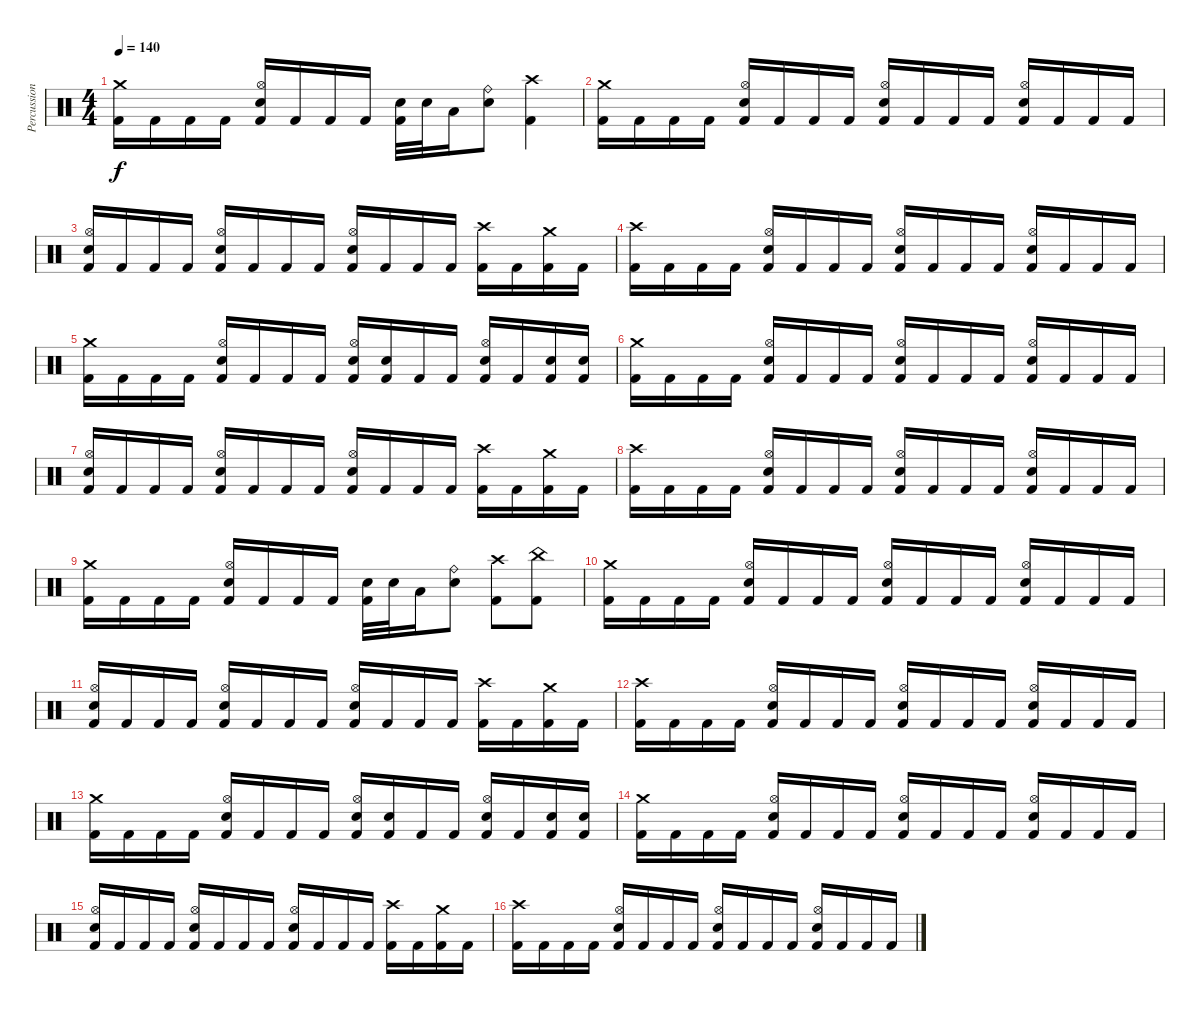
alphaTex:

\track ("Percussion" "Percussion") {instrument percussion}
\staff {score}
\articulation defaults
\ts (4 4)
\tempo 140
\clef neutral
\ks c
("Crash medium (hit)" "Kick (hit) 2").16{dy f} "Kick (hit) 2".16 "Kick (hit) 2".16 "Kick (hit) 2".16 ("Hi-Hat (open)" "Electric Snare (hit)" "Kick (hit) 2").16 "Kick (hit) 2".16 "Kick (hit) 2".16 "Kick (hit) 2".16 ("Electric Snare (hit)" "Kick (hit) 2").32 "Electric Snare (hit)".32 "Low Tom (hit)".16 ("Ride (bell)" "Electric Snare (hit)").8 ("Crash high (hit)" "Kick (hit) 2").4 |
("Crash medium (hit)" "Kick (hit) 2").16 "Kick (hit) 2".16 "Kick (hit) 2".16 "Kick (hit) 2".16 ("Hi-Hat (open)" "Electric Snare (hit)" "Kick (hit) 2").16 "Kick (hit) 2".16 "Kick (hit) 2".16 "Kick (hit) 2".16 ("Hi-Hat (open)" "Electric Snare (hit)" "Kick (hit) 2").16 "Kick (hit) 2".16 "Kick (hit) 2".16 "Kick (hit) 2".16 ("Hi-Hat (open)" "Electric Snare (hit)" "Kick (hit) 2").16 "Kick (hit) 2".16 "Kick (hit) 2".16 "Kick (hit) 2".16 |
("Hi-Hat (open)" "Electric Snare (hit)" "Kick (hit) 2").16 "Kick (hit) 2".16 "Kick (hit) 2".16 "Kick (hit) 2".16 ("Hi-Hat (open)" "Electric Snare (hit)" "Kick (hit) 2").16 "Kick (hit) 2".16 "Kick (hit) 2".16 "Kick (hit) 2".16 ("Hi-Hat (open)" "Electric Snare (hit)" "Kick (hit) 2").16 "Kick (hit) 2".16 "Kick (hit) 2".16 "Kick (hit) 2".16 ("Crash high (hit)" "Kick (hit) 2").16 "Kick (hit) 2".16 ("Crash medium (hit)" "Kick (hit) 2").16 "Kick (hit) 2".16 |
("Crash high (hit)" "Kick (hit) 2").16 "Kick (hit) 2".16 "Kick (hit) 2".16 "Kick (hit) 2".16 ("Hi-Hat (open)" "Electric Snare (hit)" "Kick (hit) 2").16 "Kick (hit) 2".16 "Kick (hit) 2".16 "Kick (hit) 2".16 ("Hi-Hat (open)" "Electric Snare (hit)" "Kick (hit) 2").16 "Kick (hit) 2".16 "Kick (hit) 2".16 "Kick (hit) 2".16 ("Hi-Hat (open)" "Electric Snare (hit)" "Kick (hit) 2").16 "Kick (hit) 2".16 "Kick (hit) 2".16 "Kick (hit) 2".16 |
("Crash medium (hit)" "Kick (hit) 2").16 "Kick (hit) 2".16 "Kick (hit) 2".16 "Kick (hit) 2".16 ("Hi-Hat (open)" "Electric Snare (hit)" "Kick (hit) 2").16 "Kick (hit) 2".16 "Kick (hit) 2".16 "Kick (hit) 2".16 ("Hi-Hat (open)" "Electric Snare (hit)" "Kick (hit) 2").16 ("Electric Snare (hit)" "Kick (hit) 2").16 "Kick (hit) 2".16 "Kick (hit) 2".16 ("Hi-Hat (open)" "Electric Snare (hit)" "Kick (hit) 2").16 "Kick (hit) 2".16 ("Electric Snare (hit)" "Kick (hit) 2").16 ("Electric Snare (hit)" "Kick (hit) 2").16 |
("Crash medium (hit)" "Kick (hit) 2").16 "Kick (hit) 2".16 "Kick (hit) 2".16 "Kick (hit) 2".16 ("Hi-Hat (open)" "Electric Snare (hit)" "Kick (hit) 2").16 "Kick (hit) 2".16 "Kick (hit) 2".16 "Kick (hit) 2".16 ("Hi-Hat (open)" "Electric Snare (hit)" "Kick (hit) 2").16 "Kick (hit) 2".16 "Kick (hit) 2".16 "Kick (hit) 2".16 ("Hi-Hat (open)" "Electric Snare (hit)" "Kick (hit) 2").16 "Kick (hit) 2".16 "Kick (hit) 2".16 "Kick (hit) 2".16 |
("Hi-Hat (open)" "Electric Snare (hit)" "Kick (hit) 2").16 "Kick (hit) 2".16 "Kick (hit) 2".16 "Kick (hit) 2".16 ("Hi-Hat (open)" "Electric Snare (hit)" "Kick (hit) 2").16 "Kick (hit) 2".16 "Kick (hit) 2".16 "Kick (hit) 2".16 ("Hi-Hat (open)" "Electric Snare (hit)" "Kick (hit) 2").16 "Kick (hit) 2".16 "Kick (hit) 2".16 "Kick (hit) 2".16 ("Crash high (hit)" "Kick (hit) 2").16 "Kick (hit) 2".16 ("Crash medium (hit)" "Kick (hit) 2").16 "Kick (hit) 2".16 |
("Crash high (hit)" "Kick (hit) 2").16 "Kick (hit) 2".16 "Kick (hit) 2".16 "Kick (hit) 2".16 ("Hi-Hat (open)" "Electric Snare (hit)" "Kick (hit) 2").16 "Kick (hit) 2".16 "Kick (hit) 2".16 "Kick (hit) 2".16 ("Hi-Hat (open)" "Electric Snare (hit)" "Kick (hit) 2").16 "Kick (hit) 2".16 "Kick (hit) 2".16 "Kick (hit) 2".16 ("Hi-Hat (open)" "Electric Snare (hit)" "Kick (hit) 2").16 "Kick (hit) 2".16 "Kick (hit) 2".16 "Kick (hit) 2".16 |
("Crash medium (hit)" "Kick (hit) 2").16 "Kick (hit) 2".16 "Kick (hit) 2".16 "Kick (hit) 2".16 ("Hi-Hat (open)" "Electric Snare (hit)" "Kick (hit) 2").16 "Kick (hit) 2".16 "Kick (hit) 2".16 "Kick (hit) 2".16 ("Electric Snare (hit)" "Kick (hit) 2").32 "Electric Snare (hit)".32 "Low Tom (hit)".16 ("Ride (bell)" "Electric Snare (hit)").8 ("Crash high (hit)" "Kick (hit) 2").8 ("China (hit)" "Kick (hit) 2").8 |
("Crash medium (hit)" "Kick (hit) 2").16 "Kick (hit) 2".16 "Kick (hit) 2".16 "Kick (hit) 2".16 ("Hi-Hat (open)" "Electric Snare (hit)" "Kick (hit) 2").16 "Kick (hit) 2".16 "Kick (hit) 2".16 "Kick (hit) 2".16 ("Hi-Hat (open)" "Electric Snare (hit)" "Kick (hit) 2").16 "Kick (hit) 2".16 "Kick (hit) 2".16 "Kick (hit) 2".16 ("Hi-Hat (open)" "Electric Snare (hit)" "Kick (hit) 2").16 "Kick (hit) 2".16 "Kick (hit) 2".16 "Kick (hit) 2".16 |
("Hi-Hat (open)" "Electric Snare (hit)" "Kick (hit) 2").16 "Kick (hit) 2".16 "Kick (hit) 2".16 "Kick (hit) 2".16 ("Hi-Hat (open)" "Electric Snare (hit)" "Kick (hit) 2").16 "Kick (hit) 2".16 "Kick (hit) 2".16 "Kick (hit) 2".16 ("Hi-Hat (open)" "Electric Snare (hit)" "Kick (hit) 2").16 "Kick (hit) 2".16 "Kick (hit) 2".16 "Kick (hit) 2".16 ("Crash high (hit)" "Kick (hit) 2").16 "Kick (hit) 2".16 ("Crash medium (hit)" "Kick (hit) 2").16 "Kick (hit) 2".16 |
("Crash high (hit)" "Kick (hit) 2").16 "Kick (hit) 2".16 "Kick (hit) 2".16 "Kick (hit) 2".16 ("Hi-Hat (open)" "Electric Snare (hit)" "Kick (hit) 2").16 "Kick (hit) 2".16 "Kick (hit) 2".16 "Kick (hit) 2".16 ("Hi-Hat (open)" "Electric Snare (hit)" "Kick (hit) 2").16 "Kick (hit) 2".16 "Kick (hit) 2".16 "Kick (hit) 2".16 ("Hi-Hat (open)" "Electric Snare (hit)" "Kick (hit) 2").16 "Kick (hit) 2".16 "Kick (hit) 2".16 "Kick (hit) 2".16 |
("Crash medium (hit)" "Kick (hit) 2").16 "Kick (hit) 2".16 "Kick (hit) 2".16 "Kick (hit) 2".16 ("Hi-Hat (open)" "Electric Snare (hit)" "Kick (hit) 2").16 "Kick (hit) 2".16 "Kick (hit) 2".16 "Kick (hit) 2".16 ("Hi-Hat (open)" "Electric Snare (hit)" "Kick (hit) 2").16 ("Electric Snare (hit)" "Kick (hit) 2").16 "Kick (hit) 2".16 "Kick (hit) 2".16 ("Hi-Hat (open)" "Electric Snare (hit)" "Kick (hit) 2").16 "Kick (hit) 2".16 ("Electric Snare (hit)" "Kick (hit) 2").16 ("Electric Snare (hit)" "Kick (hit) 2").16 |
("Crash medium (hit)" "Kick (hit) 2").16 "Kick (hit) 2".16 "Kick (hit) 2".16 "Kick (hit) 2".16 ("Hi-Hat (open)" "Electric Snare (hit)" "Kick (hit) 2").16 "Kick (hit) 2".16 "Kick (hit) 2".16 "Kick (hit) 2".16 ("Hi-Hat (open)" "Electric Snare (hit)" "Kick (hit) 2").16 "Kick (hit) 2".16 "Kick (hit) 2".16 "Kick (hit) 2".16 ("Hi-Hat (open)" "Electric Snare (hit)" "Kick (hit) 2").16 "Kick (hit) 2".16 "Kick (hit) 2".16 "Kick (hit) 2".16 |
("Hi-Hat (open)" "Electric Snare (hit)" "Kick (hit) 2").16 "Kick (hit) 2".16 "Kick (hit) 2".16 "Kick (hit) 2".16 ("Hi-Hat (open)" "Electric Snare (hit)" "Kick (hit) 2").16 "Kick (hit) 2".16 "Kick (hit) 2".16 "Kick (hit) 2".16 ("Hi-Hat (open)" "Electric Snare (hit)" "Kick (hit) 2").16 "Kick (hit) 2".16 "Kick (hit) 2".16 "Kick (hit) 2".16 ("Crash high (hit)" "Kick (hit) 2").16 "Kick (hit) 2".16 ("Crash medium (hit)" "Kick (hit) 2").16 "Kick (hit) 2".16 |
("Crash high (hit)" "Kick (hit) 2").16 "Kick (hit) 2".16 "Kick (hit) 2".16 "Kick (hit) 2".16 ("Hi-Hat (open)" "Electric Snare (hit)" "Kick (hit) 2").16 "Kick (hit) 2".16 "Kick (hit) 2".16 "Kick (hit) 2".16 ("Hi-Hat (open)" "Electric Snare (hit)" "Kick (hit) 2").16 "Kick (hit) 2".16 "Kick (hit) 2".16 "Kick (hit) 2".16 ("Hi-Hat (open)" "Electric Snare (hit)" "Kick (hit) 2").16 "Kick (hit) 2".16 "Kick (hit) 2".16 "Kick (hit) 2".16
